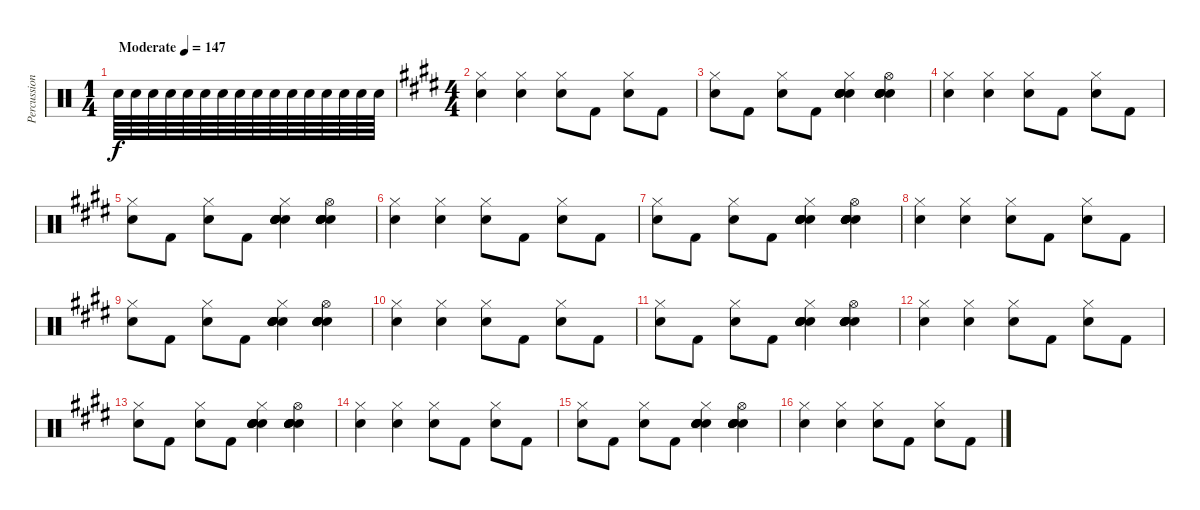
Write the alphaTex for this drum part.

\track ("Percussion" "Percussion") {instrument percussion}
\staff {score}
\articulation defaults
\ts (1 4)
\tempo (147 "Moderate")
\clef neutral
\ks c "Electric Snare (hit)".64{dy f} "Electric Snare (hit)".64 "Electric Snare (hit)".64 "Electric Snare (hit)".64 "Electric Snare (hit)".64 "Electric Snare (hit)".64 "Electric Snare (hit)".64 "Electric Snare (hit)".64 "Electric Snare (hit)".64 "Electric Snare (hit)".64 "Electric Snare (hit)".64 "Electric Snare (hit)".64 "Electric Snare (hit)".64 "Electric Snare (hit)".64 "Electric Snare (hit)".64 "Electric Snare (hit)".64
|
\ts (4 4)
\ks e
("Hi-Hat (closed)" "Electric Snare (hit)").4 ("Hi-Hat (closed)" "Electric Snare (hit)").4 ("Hi-Hat (closed)" "Electric Snare (hit)").8 "Kick (hit) 2".8 ("Hi-Hat (closed)" "Electric Snare (hit)").8 "Kick (hit) 2".8 |
("Hi-Hat (closed)" "Electric Snare (hit)").8 "Kick (hit) 2".8 ("Hi-Hat (closed)" "Electric Snare (hit)").8 "Kick (hit) 2".8 ("Hand Clap (hit)" "Hand Clap (hit)" "Hi-Hat (closed)" "Hand Clap (hit)" "Electric Snare (hit)" "Hand Clap (hit)").4{bd 60} ("Hand Clap (hit)" "Hand Clap (hit)" "Hi-Hat (open)" "Hand Clap (hit)" "Electric Snare (hit)" "Hand Clap (hit)").4{bd 60} |
("Hi-Hat (closed)" "Electric Snare (hit)").4 ("Hi-Hat (closed)" "Electric Snare (hit)").4 ("Hi-Hat (closed)" "Electric Snare (hit)").8 "Kick (hit) 2".8 ("Hi-Hat (closed)" "Electric Snare (hit)").8 "Kick (hit) 2".8 |
("Hi-Hat (closed)" "Electric Snare (hit)").8 "Kick (hit) 2".8 ("Hi-Hat (closed)" "Electric Snare (hit)").8 "Kick (hit) 2".8 ("Hand Clap (hit)" "Hand Clap (hit)" "Hi-Hat (closed)" "Hand Clap (hit)" "Electric Snare (hit)" "Hand Clap (hit)").4{bd 60} ("Hand Clap (hit)" "Hand Clap (hit)" "Hi-Hat (open)" "Hand Clap (hit)" "Electric Snare (hit)" "Hand Clap (hit)").4{bd 60} |
("Hi-Hat (closed)" "Electric Snare (hit)").4 ("Hi-Hat (closed)" "Electric Snare (hit)").4 ("Hi-Hat (closed)" "Electric Snare (hit)").8 "Kick (hit) 2".8 ("Hi-Hat (closed)" "Electric Snare (hit)").8 "Kick (hit) 2".8 |
("Hi-Hat (closed)" "Electric Snare (hit)").8 "Kick (hit) 2".8 ("Hi-Hat (closed)" "Electric Snare (hit)").8 "Kick (hit) 2".8 ("Hand Clap (hit)" "Hand Clap (hit)" "Hi-Hat (closed)" "Hand Clap (hit)" "Electric Snare (hit)" "Hand Clap (hit)").4{bd 60} ("Hand Clap (hit)" "Hand Clap (hit)" "Hi-Hat (open)" "Hand Clap (hit)" "Electric Snare (hit)" "Hand Clap (hit)").4{bd 60} |
("Hi-Hat (closed)" "Electric Snare (hit)").4 ("Hi-Hat (closed)" "Electric Snare (hit)").4 ("Hi-Hat (closed)" "Electric Snare (hit)").8 "Kick (hit) 2".8 ("Hi-Hat (closed)" "Electric Snare (hit)").8 "Kick (hit) 2".8 |
("Hi-Hat (closed)" "Electric Snare (hit)").8 "Kick (hit) 2".8 ("Hi-Hat (closed)" "Electric Snare (hit)").8 "Kick (hit) 2".8 ("Hand Clap (hit)" "Hand Clap (hit)" "Hi-Hat (closed)" "Hand Clap (hit)" "Electric Snare (hit)" "Hand Clap (hit)").4{bd 60} ("Hand Clap (hit)" "Hand Clap (hit)" "Hi-Hat (open)" "Hand Clap (hit)" "Electric Snare (hit)" "Hand Clap (hit)").4{bd 60} |
("Hi-Hat (closed)" "Electric Snare (hit)").4 ("Hi-Hat (closed)" "Electric Snare (hit)").4 ("Hi-Hat (closed)" "Electric Snare (hit)").8 "Kick (hit) 2".8 ("Hi-Hat (closed)" "Electric Snare (hit)").8 "Kick (hit) 2".8 |
("Hi-Hat (closed)" "Electric Snare (hit)").8 "Kick (hit) 2".8 ("Hi-Hat (closed)" "Electric Snare (hit)").8 "Kick (hit) 2".8 ("Hand Clap (hit)" "Hand Clap (hit)" "Hi-Hat (closed)" "Hand Clap (hit)" "Electric Snare (hit)" "Hand Clap (hit)").4{bd 60} ("Hand Clap (hit)" "Hand Clap (hit)" "Hi-Hat (open)" "Hand Clap (hit)" "Electric Snare (hit)" "Hand Clap (hit)").4{bd 60} |
("Hi-Hat (closed)" "Electric Snare (hit)").4 ("Hi-Hat (closed)" "Electric Snare (hit)").4 ("Hi-Hat (closed)" "Electric Snare (hit)").8 "Kick (hit) 2".8 ("Hi-Hat (closed)" "Electric Snare (hit)").8 "Kick (hit) 2".8 |
("Hi-Hat (closed)" "Electric Snare (hit)").8 "Kick (hit) 2".8 ("Hi-Hat (closed)" "Electric Snare (hit)").8 "Kick (hit) 2".8 ("Hand Clap (hit)" "Hand Clap (hit)" "Hi-Hat (closed)" "Hand Clap (hit)" "Electric Snare (hit)" "Hand Clap (hit)").4{bd 60} ("Hand Clap (hit)" "Hand Clap (hit)" "Hi-Hat (open)" "Hand Clap (hit)" "Electric Snare (hit)" "Hand Clap (hit)").4{bd 60} |
("Hi-Hat (closed)" "Electric Snare (hit)").4 ("Hi-Hat (closed)" "Electric Snare (hit)").4 ("Hi-Hat (closed)" "Electric Snare (hit)").8 "Kick (hit) 2".8 ("Hi-Hat (closed)" "Electric Snare (hit)").8 "Kick (hit) 2".8 |
("Hi-Hat (closed)" "Electric Snare (hit)").8 "Kick (hit) 2".8 ("Hi-Hat (closed)" "Electric Snare (hit)").8 "Kick (hit) 2".8 ("Hand Clap (hit)" "Hand Clap (hit)" "Hi-Hat (closed)" "Hand Clap (hit)" "Electric Snare (hit)" "Hand Clap (hit)").4{bd 60} ("Hand Clap (hit)" "Hand Clap (hit)" "Hi-Hat (open)" "Hand Clap (hit)" "Electric Snare (hit)" "Hand Clap (hit)").4{bd 60} |
("Hi-Hat (closed)" "Electric Snare (hit)").4 ("Hi-Hat (closed)" "Electric Snare (hit)").4 ("Hi-Hat (closed)" "Electric Snare (hit)").8 "Kick (hit) 2".8 ("Hi-Hat (closed)" "Electric Snare (hit)").8 "Kick (hit) 2".8
